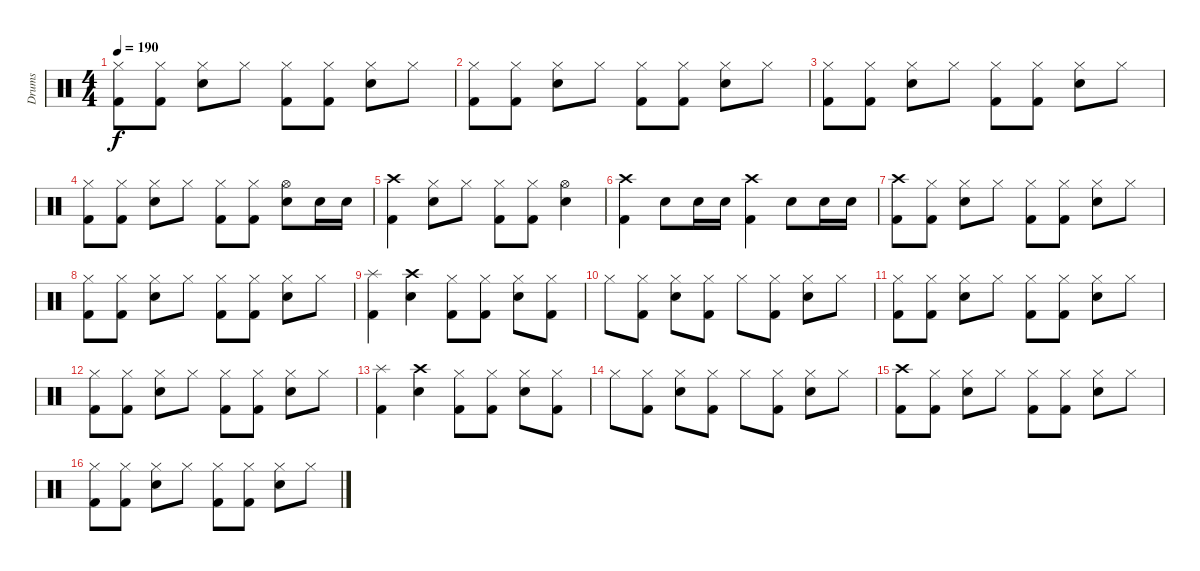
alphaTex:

\track ("Drums" "Drums") {instrument percussion}
\staff {score}
\articulation defaults
\ts (4 4)
\tempo 190
\clef neutral
\ks c
("Kick (hit) 2" "Hi-Hat (closed)").8{dy f} ("Kick (hit) 2" "Hi-Hat (closed)").8 ("Snare (hit) 2" "Hi-Hat (closed)").8 "Hi-Hat (closed)".8 ("Kick (hit) 2" "Hi-Hat (closed)").8 ("Kick (hit) 2" "Hi-Hat (closed)").8 ("Snare (hit) 2" "Hi-Hat (closed)").8 "Hi-Hat (closed)".8 |
("Kick (hit) 2" "Hi-Hat (closed)").8 ("Kick (hit) 2" "Hi-Hat (closed)").8 ("Snare (hit) 2" "Hi-Hat (closed)").8 "Hi-Hat (closed)".8 ("Kick (hit) 2" "Hi-Hat (closed)").8 ("Kick (hit) 2" "Hi-Hat (closed)").8 ("Snare (hit) 2" "Hi-Hat (closed)").8 "Hi-Hat (closed)".8 |
("Kick (hit) 2" "Hi-Hat (closed)").8 ("Kick (hit) 2" "Hi-Hat (closed)").8 ("Snare (hit) 2" "Hi-Hat (closed)").8 "Hi-Hat (closed)".8 ("Kick (hit) 2" "Hi-Hat (closed)").8 ("Kick (hit) 2" "Hi-Hat (closed)").8 ("Snare (hit) 2" "Hi-Hat (closed)").8 "Hi-Hat (closed)".8 |
("Kick (hit) 2" "Hi-Hat (closed)").8 ("Kick (hit) 2" "Hi-Hat (closed)").8 ("Snare (hit) 2" "Hi-Hat (closed)").8 "Hi-Hat (closed)".8 ("Kick (hit) 2" "Hi-Hat (closed)").8 ("Kick (hit) 2" "Hi-Hat (closed)").8 ("Snare (hit) 2" "Hi-Hat (open)").8 "Snare (hit) 2".16 "Snare (hit) 2".16 |
("Kick (hit) 2" "Crash high (hit)").4 ("Snare (hit) 2" "Hi-Hat (closed)").8 "Hi-Hat (closed)".8 ("Kick (hit) 2" "Hi-Hat (closed)").8 ("Kick (hit) 2" "Hi-Hat (closed)").8 ("Snare (hit) 2" "Hi-Hat (open)").4 |
("Kick (hit) 2" "Crash high (hit)").4 "Snare (hit) 2".8 "Snare (hit) 2".16 "Snare (hit) 2".16 ("Kick (hit) 2" "Crash high (hit)").4 "Snare (hit) 2".8 "Snare (hit) 2".16 "Snare (hit) 2".16 |
("Kick (hit) 2" "Crash high (hit)").8 ("Kick (hit) 2" "Hi-Hat (closed)").8 ("Snare (hit) 2" "Hi-Hat (closed)").8 "Hi-Hat (closed)".8 ("Kick (hit) 2" "Hi-Hat (closed)").8 ("Kick (hit) 2" "Hi-Hat (closed)").8 ("Snare (hit) 2" "Hi-Hat (closed)").8 "Hi-Hat (closed)".8 |
("Kick (hit) 2" "Hi-Hat (closed)").8 ("Kick (hit) 2" "Hi-Hat (closed)").8 ("Snare (hit) 2" "Hi-Hat (closed)").8 "Hi-Hat (closed)".8 ("Kick (hit) 2" "Hi-Hat (closed)").8 ("Kick (hit) 2" "Hi-Hat (closed)").8 ("Snare (hit) 2" "Hi-Hat (closed)").8 "Hi-Hat (closed)".8 |
("Kick (hit) 2" "Splash (hit)").4 ("Snare (hit) 2" "Crash high (hit)").4 ("Kick (hit) 2" "Hi-Hat (closed)").8 ("Kick (hit) 2" "Hi-Hat (closed)").8 ("Snare (hit) 2" "Hi-Hat (closed)").8 ("Kick (hit) 2" "Hi-Hat (closed)").8 |
"Hi-Hat (closed)".8 ("Kick (hit) 2" "Hi-Hat (closed)").8 ("Snare (hit) 2" "Hi-Hat (closed)").8 ("Kick (hit) 2" "Hi-Hat (closed)").8 "Hi-Hat (closed)".8 ("Kick (hit) 2" "Hi-Hat (closed)").8 ("Snare (hit) 2" "Hi-Hat (closed)").8 "Hi-Hat (closed)".8 |
("Kick (hit) 2" "Hi-Hat (closed)").8 ("Kick (hit) 2" "Hi-Hat (closed)").8 ("Snare (hit) 2" "Hi-Hat (closed)").8 "Hi-Hat (closed)".8 ("Kick (hit) 2" "Hi-Hat (closed)").8 ("Kick (hit) 2" "Hi-Hat (closed)").8 ("Snare (hit) 2" "Hi-Hat (closed)").8 "Hi-Hat (closed)".8 |
("Kick (hit) 2" "Hi-Hat (closed)").8 ("Kick (hit) 2" "Hi-Hat (closed)").8 ("Snare (hit) 2" "Hi-Hat (closed)").8 "Hi-Hat (closed)".8 ("Kick (hit) 2" "Hi-Hat (closed)").8 ("Kick (hit) 2" "Hi-Hat (closed)").8 ("Snare (hit) 2" "Hi-Hat (closed)").8 "Hi-Hat (closed)".8 |
("Kick (hit) 2" "Splash (hit)").4 ("Snare (hit) 2" "Crash high (hit)").4 ("Kick (hit) 2" "Hi-Hat (closed)").8 ("Kick (hit) 2" "Hi-Hat (closed)").8 ("Snare (hit) 2" "Hi-Hat (closed)").8 ("Kick (hit) 2" "Hi-Hat (closed)").8 |
"Hi-Hat (closed)".8 ("Kick (hit) 2" "Hi-Hat (closed)").8 ("Snare (hit) 2" "Hi-Hat (closed)").8 ("Kick (hit) 2" "Hi-Hat (closed)").8 "Hi-Hat (closed)".8 ("Kick (hit) 2" "Hi-Hat (closed)").8 ("Snare (hit) 2" "Hi-Hat (closed)").8 "Hi-Hat (closed)".8 |
("Kick (hit) 2" "Crash high (hit)").8 ("Kick (hit) 2" "Hi-Hat (closed)").8 ("Snare (hit) 2" "Hi-Hat (closed)").8 "Hi-Hat (closed)".8 ("Kick (hit) 2" "Hi-Hat (closed)").8 ("Kick (hit) 2" "Hi-Hat (closed)").8 ("Snare (hit) 2" "Hi-Hat (closed)").8 "Hi-Hat (closed)".8 |
("Kick (hit) 2" "Hi-Hat (closed)").8 ("Kick (hit) 2" "Hi-Hat (closed)").8 ("Snare (hit) 2" "Hi-Hat (closed)").8 "Hi-Hat (closed)".8 ("Kick (hit) 2" "Hi-Hat (closed)").8 ("Kick (hit) 2" "Hi-Hat (closed)").8 ("Snare (hit) 2" "Hi-Hat (closed)").8 "Hi-Hat (closed)".8
